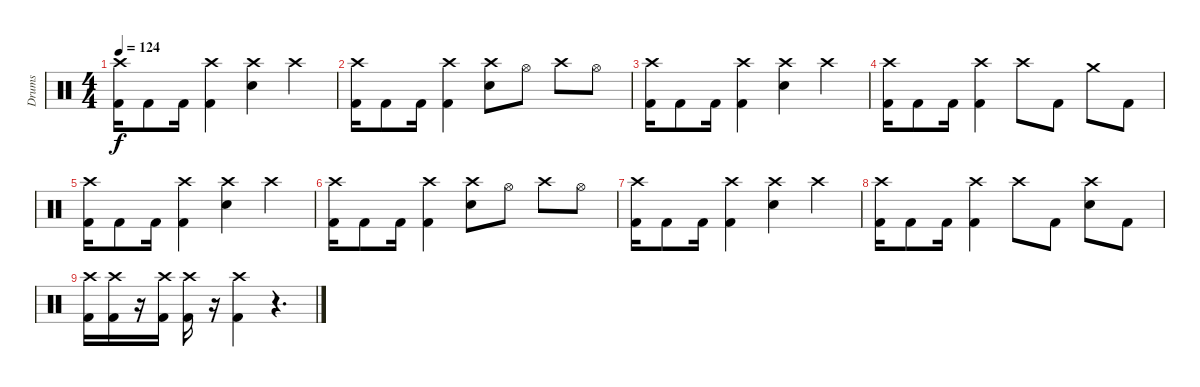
\track ("Drums" "Drums") {instrument percussion}
\staff {score}
\articulation defaults
\ts (4 4)
\tempo 124
\clef neutral
\ks c
("Crash high (hit)" "Kick (hit) 2").16{dy f} "Kick (hit) 2".8 "Kick (hit) 2".16 ("Crash high (hit)" "Kick (hit) 2").4 ("Crash high (hit)" "Snare (hit) 2").4 "Crash high (hit)".4 |
("Crash high (hit)" "Kick (hit) 2").16 "Kick (hit) 2".8 "Kick (hit) 2".16 ("Crash high (hit)" "Kick (hit) 2").4 ("Crash high (hit)" "Snare (hit) 2").8 "Hi-Hat (open)".8 "Crash high (hit)".8 "Hi-Hat (open)".8 |
("Crash high (hit)" "Kick (hit) 2").16 "Kick (hit) 2".8 "Kick (hit) 2".16 ("Crash high (hit)" "Kick (hit) 2").4 ("Crash high (hit)" "Snare (hit) 2").4 "Crash high (hit)".4 |
("Crash high (hit)" "Kick (hit) 2").16 "Kick (hit) 2".8 "Kick (hit) 2".16 ("Crash high (hit)" "Kick (hit) 2").4 "Crash high (hit)".8 "Kick (hit) 2".8 "Crash medium (hit)".8 "Kick (hit) 2".8 |
("Crash high (hit)" "Kick (hit) 2").16 "Kick (hit) 2".8 "Kick (hit) 2".16 ("Crash high (hit)" "Kick (hit) 2").4 ("Crash high (hit)" "Snare (hit) 2").4 "Crash high (hit)".4 |
("Crash high (hit)" "Kick (hit) 2").16 "Kick (hit) 2".8 "Kick (hit) 2".16 ("Crash high (hit)" "Kick (hit) 2").4 ("Crash high (hit)" "Snare (hit) 2").8 "Hi-Hat (open)".8 "Crash high (hit)".8 "Hi-Hat (open)".8 |
("Crash high (hit)" "Kick (hit) 2").16 "Kick (hit) 2".8 "Kick (hit) 2".16 ("Crash high (hit)" "Kick (hit) 2").4 ("Crash high (hit)" "Snare (hit) 2").4 "Crash high (hit)".4 |
("Crash high (hit)" "Kick (hit) 2").16 "Kick (hit) 2".8 "Kick (hit) 2".16 ("Crash high (hit)" "Kick (hit) 2").4 "Crash high (hit)".8 "Kick (hit) 2".8 ("Crash high (hit)" "Snare (hit) 2").8 "Kick (hit) 2".8 |
("Crash high (hit)" "Kick (hit) 2").16 ("Crash high (hit)" "Kick (hit) 2").16 r.16 ("Crash high (hit)" "Kick (hit) 2").16 ("Crash high (hit)" "Kick (hit) 2").16 r.16 ("Crash high (hit)" "Kick (hit) 2").4 r.4{d}
